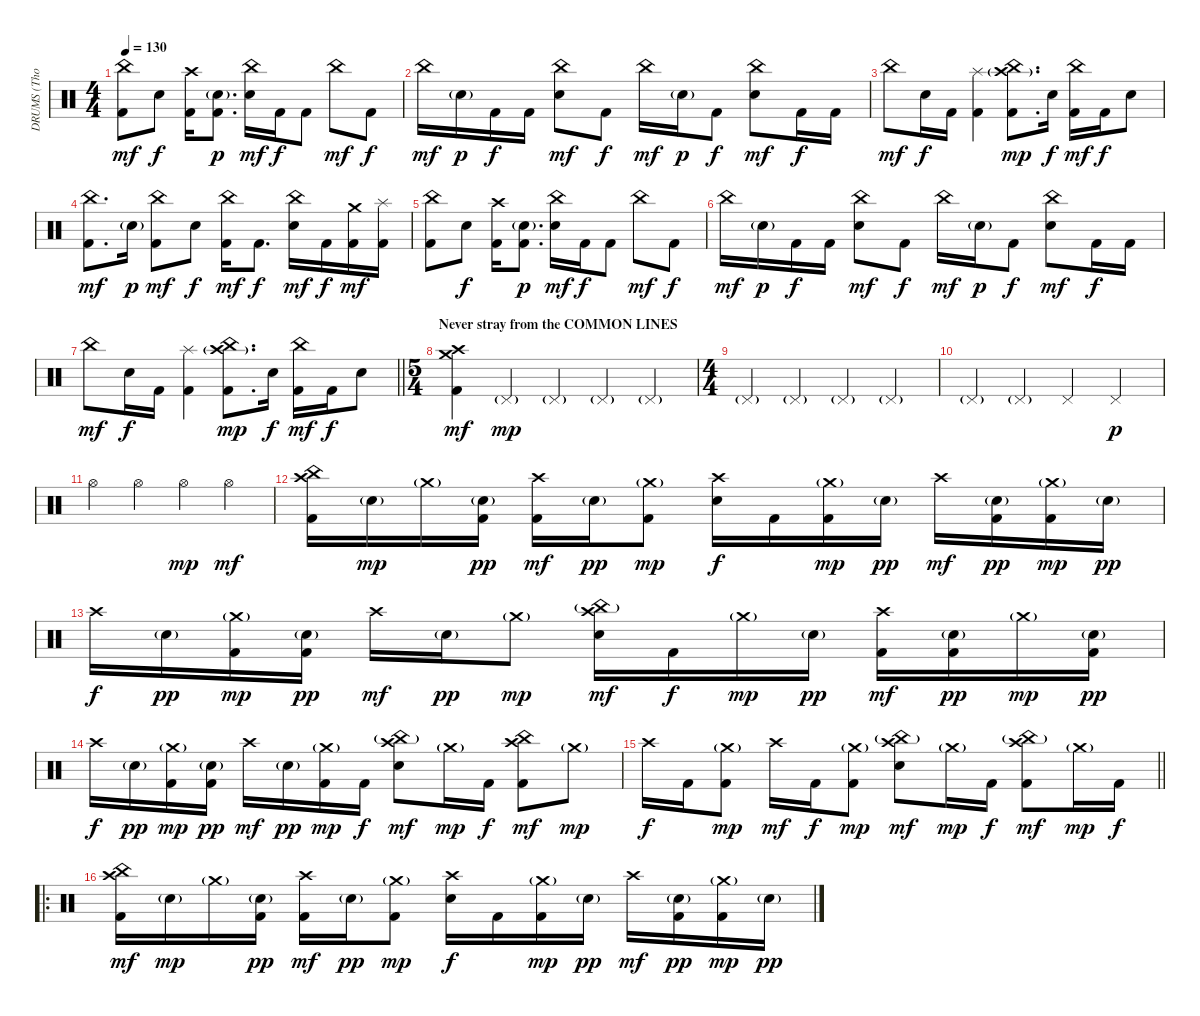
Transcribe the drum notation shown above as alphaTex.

\track ("DRUMS (Thomas Haake)" "DRUMS (Tho") {instrument percussion}
\staff {score}
\articulation defaults
\ts (4 4)
\tempo 130
\clef neutral
\ks c
("China (hit)" "Kick (hit) 2").8{dy mf} "Electric Snare (hit)".8{dy f} ("Crash high (hit)" "Kick (hit) 2").16 ("Electric Snare (hit)"{g} "Kick (hit) 2").8{d dy p} ("China (hit)" "Electric Snare (hit)").16{dy mf} "Kick (hit) 2".16{dy f} "Kick (hit) 2".8 "China (hit)".8{dy mf} "Kick (hit) 2".8{dy f} |
"China (hit)".16{dy mf} "Electric Snare (hit)"{g}.16{dy p} "Kick (hit) 2".16{dy f} "Kick (hit) 2".16 ("China (hit)" "Electric Snare (hit)").8{dy mf} "Kick (hit) 2".8{dy f} "China (hit)".16{dy mf} "Electric Snare (hit)"{g}.16{dy p} "Kick (hit) 2".8{dy f} ("China (hit)" "Electric Snare (hit)").8{dy mf} "Kick (hit) 2".16{dy f} "Kick (hit) 2".16 |
"China (hit)".8{dy mf} "Electric Snare (hit)".16{dy f} "Kick (hit) 2".16 ("Splash (hit)" "Kick (hit) 2").4 ("China (hit)" "Crash high (hit)"{g} "Kick (hit) 2").8{d dy mp} "Electric Snare (hit)".16{dy f} ("China (hit)" "Kick (hit) 2").16{dy mf} "Kick (hit) 2".16{dy f} "Electric Snare (hit)".8 |
("China (hit)" "Kick (hit) 2").8{d dy mf} "Electric Snare (hit)"{g}.16{dy p} ("China (hit)" "Kick (hit) 2").8{dy mf} "Electric Snare (hit)".8{dy f} ("China (hit)" "Kick (hit) 2").16{dy mf} "Kick (hit) 2".8{d dy f} ("China (hit)" "Electric Snare (hit)").16{dy mf} "Kick (hit) 2".16{dy f} ("Crash medium (hit)" "Kick (hit) 2").16{dy mf} ("Splash (hit)" "Kick (hit) 2").16 |
("China (hit)" "Kick (hit) 2").8 "Electric Snare (hit)".8{dy f} ("Crash high (hit)" "Kick (hit) 2").16 ("Electric Snare (hit)"{g} "Kick (hit) 2").8{d dy p} ("China (hit)" "Electric Snare (hit)").16{dy mf} "Kick (hit) 2".16{dy f} "Kick (hit) 2".8 "China (hit)".8{dy mf} "Kick (hit) 2".8{dy f} |
"China (hit)".16{dy mf} "Electric Snare (hit)"{g}.16{dy p} "Kick (hit) 2".16{dy f} "Kick (hit) 2".16 ("China (hit)" "Electric Snare (hit)").8{dy mf} "Kick (hit) 2".8{dy f} "China (hit)".16{dy mf} "Electric Snare (hit)"{g}.16{dy p} "Kick (hit) 2".8{dy f} ("China (hit)" "Electric Snare (hit)").8{dy mf} "Kick (hit) 2".16{dy f} "Kick (hit) 2".16 |
\barLineRight lightlight "China (hit)".8{dy mf} "Electric Snare (hit)".16{dy f} "Kick (hit) 2".16
("Splash (hit)" "Kick (hit) 2").4 ("China (hit)" "Crash high (hit)"{g} "Kick (hit) 2").8{d dy mp} "Electric Snare (hit)".16{dy f} ("China (hit)" "Kick (hit) 2").16{dy mf} "Kick (hit) 2".16{dy f} "Electric Snare (hit)".8 |
\ts (5 4)
\section ("" "Never stray from the COMMON LINES")
("Crash high (hit)" "Crash medium (hit)" "Kick (hit) 2").4{dy mf} "Pedal Hi-Hat (hit)"{g}.4{dy mp} "Pedal Hi-Hat (hit)"{g}.4 "Pedal Hi-Hat (hit)"{g}.4 "Pedal Hi-Hat (hit)"{g}.4 |
\ts (4 4)
"Pedal Hi-Hat (hit)"{g}.4 "Pedal Hi-Hat (hit)"{g}.4 "Pedal Hi-Hat (hit)"{g}.4 "Pedal Hi-Hat (hit)"{g}.4 |
"Pedal Hi-Hat (hit)"{g}.4 "Pedal Hi-Hat (hit)"{g}.4 "Pedal Hi-Hat (hit)".4 "Pedal Hi-Hat (hit)".4{dy p} |
"Hi-Hat (open)".4 "Hi-Hat (open)".4 "Hi-Hat (open)".4{dy mp} "Hi-Hat (open)".4{dy mf} |
("Crash high (hit)" "China (hit)" "Kick (hit) 2").16 "Electric Snare (hit)"{g}.16{dy mp} "Crash medium (hit)"{g}.16 ("Electric Snare (hit)"{g} "Kick (hit) 2").16{dy pp} ("Crash high (hit)" "Kick (hit) 2").16{dy mf} "Electric Snare (hit)"{g}.16{dy pp} ("Crash medium (hit)"{g} "Kick (hit) 2").8{dy mp} ("Crash high (hit)" "Electric Snare (hit)").16{dy f} "Kick (hit) 2".16 ("Crash medium (hit)"{g} "Kick (hit) 2").16{dy mp} "Electric Snare (hit)"{g}.16{dy pp} "Crash high (hit)".16{dy mf} ("Electric Snare (hit)"{g} "Kick (hit) 2").16{dy pp} ("Crash medium (hit)"{g} "Kick (hit) 2").16{dy mp} "Electric Snare (hit)"{g}.16{dy pp} |
"Crash high (hit)".16{dy f} "Electric Snare (hit)"{g}.16{dy pp} ("Crash medium (hit)"{g} "Kick (hit) 2").16{dy mp} ("Electric Snare (hit)"{g} "Kick (hit) 2").16{dy pp} "Crash high (hit)".16{dy mf} "Electric Snare (hit)"{g}.16{dy pp} "Crash medium (hit)"{g}.8{dy mp} ("Crash high (hit)" "China (hit)"{g} "Electric Snare (hit)").16{dy mf} "Kick (hit) 2".16{dy f} "Crash medium (hit)"{g}.16{dy mp} "Electric Snare (hit)"{g}.16{dy pp} ("Crash high (hit)" "Kick (hit) 2").16{dy mf} ("Electric Snare (hit)"{g} "Kick (hit) 2").16{dy pp} "Crash medium (hit)"{g}.16{dy mp} ("Electric Snare (hit)"{g} "Kick (hit) 2").16{dy pp} |
"Crash high (hit)".16{dy f} "Electric Snare (hit)"{g}.16{dy pp} ("Crash medium (hit)"{g} "Kick (hit) 2").16{dy mp} ("Electric Snare (hit)"{g} "Kick (hit) 2").16{dy pp} "Crash high (hit)".16{dy mf} "Electric Snare (hit)"{g}.16{dy pp} ("Crash medium (hit)"{g} "Kick (hit) 2").16{dy mp} "Kick (hit) 2".16{dy f} ("Crash high (hit)" "China (hit)"{g} "Electric Snare (hit)").8{dy mf} "Crash medium (hit)"{g}.16{dy mp} "Kick (hit) 2".16{dy f} ("Crash high (hit)" "China (hit)" "Kick (hit) 2").8{dy mf} "Crash medium (hit)"{g}.8{dy mp} |
\barLineRight lightlight "Crash high (hit)".16{dy f} "Kick (hit) 2".16
("Crash medium (hit)"{g} "Kick (hit) 2").8{dy mp} "Crash high (hit)".16{dy mf} "Kick (hit) 2".16{dy f} ("Crash medium (hit)"{g} "Kick (hit) 2").8{dy mp} ("Crash high (hit)" "China (hit)"{g} "Electric Snare (hit)").8{dy mf} "Crash medium (hit)"{g}.16{dy mp} "Kick (hit) 2".16{dy f} ("Crash high (hit)" "China (hit)"{g} "Kick (hit) 2").8{dy mf} "Crash medium (hit)"{g}.16{dy mp} "Kick (hit) 2".16{dy f} |
\ro
("Crash high (hit)" "China (hit)" "Kick (hit) 2").16{dy mf} "Electric Snare (hit)"{g}.16{dy mp} "Crash medium (hit)"{g}.16 ("Electric Snare (hit)"{g} "Kick (hit) 2").16{dy pp} ("Crash high (hit)" "Kick (hit) 2").16{dy mf} "Electric Snare (hit)"{g}.16{dy pp} ("Crash medium (hit)"{g} "Kick (hit) 2").8{dy mp} ("Crash high (hit)" "Electric Snare (hit)").16{dy f} "Kick (hit) 2".16 ("Crash medium (hit)"{g} "Kick (hit) 2").16{dy mp} "Electric Snare (hit)"{g}.16{dy pp} "Crash high (hit)".16{dy mf} ("Electric Snare (hit)"{g} "Kick (hit) 2").16{dy pp} ("Crash medium (hit)"{g} "Kick (hit) 2").16{dy mp} "Electric Snare (hit)"{g}.16{dy pp}
